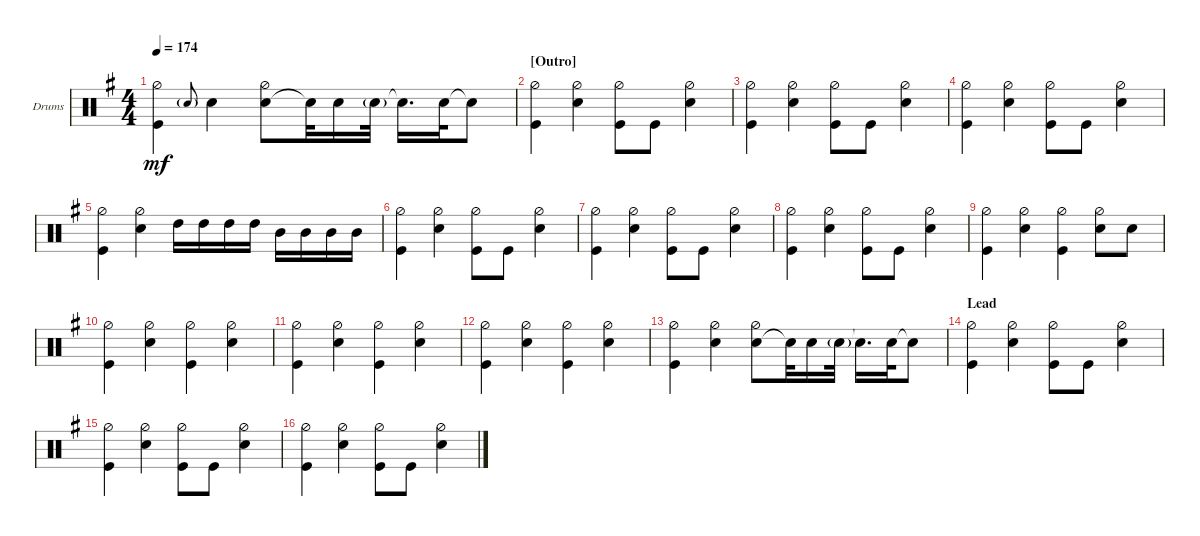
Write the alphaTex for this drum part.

\bracketExtendMode groupsimilarinstruments
\firstSystemTrackNameOrientation horizontal
\otherSystemsTrackNameOrientation horizontal
\track ("Drumkit" "Drums") {instrument percussion}
\staff {score}
\articulation defaults
\ts (4 4)
\tempo 174
\clef neutral
\scale
0.333333
\ks eminor
("Kick (hit)" "Hi-Hat (half)").4{dy mf} "Snare (hit) 2"{g}.8{gr onbeat} "Snare (hit) 2".4 ("Snare (hit) 2" "Hi-Hat (half)").8 "Snare (hit) 2"{t}.32 "Snare (hit) 2".16 "Snare (hit) 2"{g}.32 "Snare (hit) 2"{t}.16{d} "Snare (hit) 2".32 "Snare (hit) 2"{t}.8 |
\section ("" "[Outro]")
\scale
0.333333 ("Kick (hit)" "Hi-Hat (half)").4 ("Snare (hit) 2" "Hi-Hat (half)").4 ("Kick (hit)" "Hi-Hat (half)").8 "Kick (hit)".8 ("Snare (hit) 2" "Hi-Hat (half)").4 |
\scale
0.333333 ("Kick (hit)" "Hi-Hat (half)").4 ("Snare (hit) 2" "Hi-Hat (half)").4 ("Kick (hit)" "Hi-Hat (half)").8 "Kick (hit)".8 ("Snare (hit) 2" "Hi-Hat (half)").4 |
\scale
0.333333 ("Kick (hit)" "Hi-Hat (half)").4 ("Snare (hit) 2" "Hi-Hat (half)").4 ("Kick (hit)" "Hi-Hat (half)").8 "Kick (hit)".8 ("Snare (hit) 2" "Hi-Hat (half)").4 |
\scale
0.333333 ("Kick (hit)" "Hi-Hat (half)").4 ("Snare (hit) 2" "Hi-Hat (half)").4 "High Tom (hit)".16 "High Tom (hit)".16 "High Tom (hit)".16 "High Tom (hit)".16 "Mid Tom (hit)".16 "Mid Tom (hit)".16 "Mid Tom (hit)".16 "Mid Tom (hit)".16 |
\scale
0.333333 ("Kick (hit)" "Hi-Hat (half)").4 ("Snare (hit) 2" "Hi-Hat (half)").4 ("Kick (hit)" "Hi-Hat (half)").8 "Kick (hit)".8 ("Snare (hit) 2" "Hi-Hat (half)").4 |
\scale
0.333333 ("Kick (hit)" "Hi-Hat (half)").4 ("Snare (hit) 2" "Hi-Hat (half)").4 ("Kick (hit)" "Hi-Hat (half)").8 "Kick (hit)".8 ("Snare (hit) 2" "Hi-Hat (half)").4 |
\scale
0.333333 ("Kick (hit)" "Hi-Hat (half)").4 ("Snare (hit) 2" "Hi-Hat (half)").4 ("Kick (hit)" "Hi-Hat (half)").8 "Kick (hit)".8 ("Snare (hit) 2" "Hi-Hat (half)").4 |
\scale
0.333333 ("Kick (hit)" "Hi-Hat (half)").4 ("Snare (hit) 2" "Hi-Hat (half)").4 ("Kick (hit)" "Hi-Hat (half)").4 ("Snare (hit) 2" "Hi-Hat (half)").8 "Snare (hit) 2".8 |
\scale
0.333333 ("Kick (hit)" "Hi-Hat (half)").4 ("Snare (hit) 2" "Hi-Hat (half)").4 ("Kick (hit)" "Hi-Hat (half)").4 ("Snare (hit) 2" "Hi-Hat (half)").4 |
\scale
0.333333 ("Kick (hit)" "Hi-Hat (half)").4 ("Snare (hit) 2" "Hi-Hat (half)").4 ("Kick (hit)" "Hi-Hat (half)").4 ("Snare (hit) 2" "Hi-Hat (half)").4 |
\scale
0.333333 ("Kick (hit)" "Hi-Hat (half)").4 ("Snare (hit) 2" "Hi-Hat (half)").4 ("Kick (hit)" "Hi-Hat (half)").4 ("Snare (hit) 2" "Hi-Hat (half)").4 |
\scale
0.333333 ("Kick (hit)" "Hi-Hat (half)").4 ("Snare (hit) 2" "Hi-Hat (half)").4 ("Snare (hit) 2" "Hi-Hat (half)").8 "Snare (hit) 2"{t}.32 "Snare (hit) 2".16 "Snare (hit) 2"{g}.32 "Snare (hit) 2"{t}.16{d} "Snare (hit) 2".32 "Snare (hit) 2"{t}.8 |
\section ("" "Lead")
\scale
0.333333 ("Kick (hit)" "Hi-Hat (half)").4 ("Snare (hit) 2" "Hi-Hat (half)").4 ("Kick (hit)" "Hi-Hat (half)").8 "Kick (hit)".8 ("Snare (hit) 2" "Hi-Hat (half)").4 |
\scale
0.333333 ("Kick (hit)" "Hi-Hat (half)").4 ("Snare (hit) 2" "Hi-Hat (half)").4 ("Kick (hit)" "Hi-Hat (half)").8 "Kick (hit)".8 ("Snare (hit) 2" "Hi-Hat (half)").4 |
\scale
0.333333 ("Kick (hit)" "Hi-Hat (half)").4 ("Snare (hit) 2" "Hi-Hat (half)").4 ("Kick (hit)" "Hi-Hat (half)").8 "Kick (hit)".8 ("Snare (hit) 2" "Hi-Hat (half)").4
